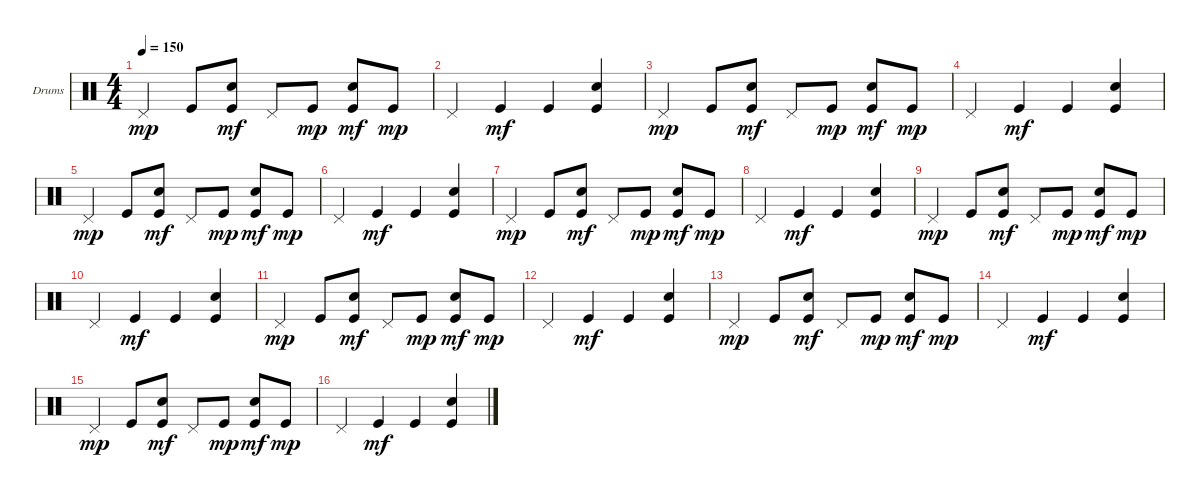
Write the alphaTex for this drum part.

\defaultSystemsLayout 4
\bracketExtendMode groupsimilarinstruments
\firstSystemTrackNameOrientation horizontal
\otherSystemsTrackNameOrientation horizontal
\track ("Е. Кулаков" "Drums") {instrument percussion}
\staff {score}
\articulation defaults
\ts (4 4)
\tempo 150
\clef neutral
\ks c "Pedal Hi-Hat (hit)".4{dy mp} "Kick (hit)".8
("Kick (hit)" "Snare (hit) 2").8{dy mf} "Pedal Hi-Hat (hit)".8 "Kick (hit)".8{dy mp} ("Kick (hit)" "Snare (hit) 2").8{dy mf} "Kick (hit)".8{dy mp} |
"Pedal Hi-Hat (hit)".4 "Kick (hit)".4{dy mf} "Kick (hit)".4 ("Snare (hit) 2" "Kick (hit)").4 |
"Pedal Hi-Hat (hit)".4{dy mp} "Kick (hit)".8 ("Kick (hit)" "Snare (hit) 2").8{dy mf} "Pedal Hi-Hat (hit)".8 "Kick (hit)".8{dy mp} ("Kick (hit)" "Snare (hit) 2").8{dy mf} "Kick (hit)".8{dy mp} |
"Pedal Hi-Hat (hit)".4 "Kick (hit)".4{dy mf} "Kick (hit)".4 ("Snare (hit) 2" "Kick (hit)").4 |
"Pedal Hi-Hat (hit)".4{dy mp} "Kick (hit)".8 ("Kick (hit)" "Snare (hit) 2").8{dy mf} "Pedal Hi-Hat (hit)".8 "Kick (hit)".8{dy mp} ("Kick (hit)" "Snare (hit) 2").8{dy mf} "Kick (hit)".8{dy mp} |
"Pedal Hi-Hat (hit)".4 "Kick (hit)".4{dy mf} "Kick (hit)".4 ("Snare (hit) 2" "Kick (hit)").4 |
"Pedal Hi-Hat (hit)".4{dy mp} "Kick (hit)".8 ("Kick (hit)" "Snare (hit) 2").8{dy mf} "Pedal Hi-Hat (hit)".8 "Kick (hit)".8{dy mp} ("Kick (hit)" "Snare (hit) 2").8{dy mf} "Kick (hit)".8{dy mp} |
"Pedal Hi-Hat (hit)".4 "Kick (hit)".4{dy mf} "Kick (hit)".4 ("Snare (hit) 2" "Kick (hit)").4 |
"Pedal Hi-Hat (hit)".4{dy mp} "Kick (hit)".8 ("Kick (hit)" "Snare (hit) 2").8{dy mf} "Pedal Hi-Hat (hit)".8 "Kick (hit)".8{dy mp} ("Kick (hit)" "Snare (hit) 2").8{dy mf} "Kick (hit)".8{dy mp} |
"Pedal Hi-Hat (hit)".4 "Kick (hit)".4{dy mf} "Kick (hit)".4 ("Snare (hit) 2" "Kick (hit)").4 |
"Pedal Hi-Hat (hit)".4{dy mp} "Kick (hit)".8 ("Kick (hit)" "Snare (hit) 2").8{dy mf} "Pedal Hi-Hat (hit)".8 "Kick (hit)".8{dy mp} ("Kick (hit)" "Snare (hit) 2").8{dy mf} "Kick (hit)".8{dy mp} |
"Pedal Hi-Hat (hit)".4 "Kick (hit)".4{dy mf} "Kick (hit)".4 ("Snare (hit) 2" "Kick (hit)").4 |
"Pedal Hi-Hat (hit)".4{dy mp} "Kick (hit)".8 ("Kick (hit)" "Snare (hit) 2").8{dy mf} "Pedal Hi-Hat (hit)".8 "Kick (hit)".8{dy mp} ("Kick (hit)" "Snare (hit) 2").8{dy mf} "Kick (hit)".8{dy mp} |
"Pedal Hi-Hat (hit)".4 "Kick (hit)".4{dy mf} "Kick (hit)".4 ("Snare (hit) 2" "Kick (hit)").4 |
"Pedal Hi-Hat (hit)".4{dy mp} "Kick (hit)".8 ("Kick (hit)" "Snare (hit) 2").8{dy mf} "Pedal Hi-Hat (hit)".8 "Kick (hit)".8{dy mp} ("Kick (hit)" "Snare (hit) 2").8{dy mf} "Kick (hit)".8{dy mp} |
"Pedal Hi-Hat (hit)".4 "Kick (hit)".4{dy mf} "Kick (hit)".4 ("Snare (hit) 2" "Kick (hit)").4
